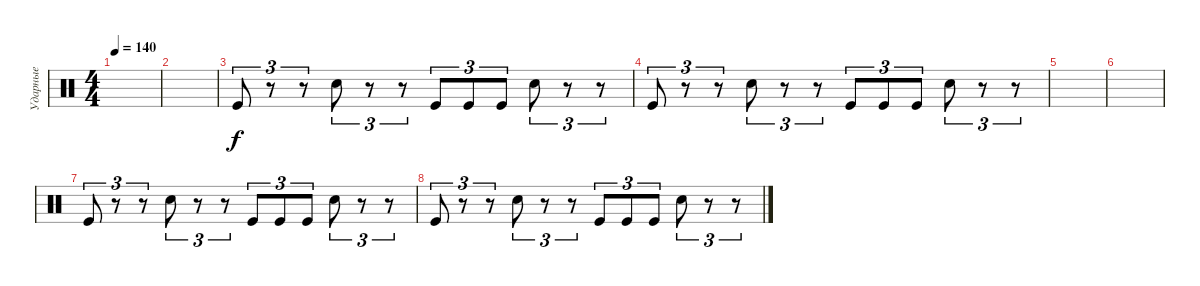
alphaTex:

\track ("Ударные" "Ударные") {instrument percussion}
\staff {score}
\articulation defaults
\ts (4 4)
\tempo 140
\clef neutral
\ks c
|
|
"Kick (hit)".8{tu (3 2)} r.8{tu (3 2)} r.8{tu (3 2)} "Electric Snare (hit)".8{tu (3 2)} r.8{tu (3 2)} r.8{tu (3 2)} "Kick (hit)".8{tu (3 2)} "Kick (hit)".8{tu (3 2)} "Kick (hit)".8{tu (3 2)} "Electric Snare (hit)".8{tu (3 2)} r.8{tu (3 2)} r.8{tu (3 2)} |
"Kick (hit)".8{tu (3 2)} r.8{tu (3 2)} r.8{tu (3 2)} "Electric Snare (hit)".8{tu (3 2)} r.8{tu (3 2)} r.8{tu (3 2)} "Kick (hit)".8{tu (3 2)} "Kick (hit)".8{tu (3 2)} "Kick (hit)".8{tu (3 2)} "Electric Snare (hit)".8{tu (3 2)} r.8{tu (3 2)} r.8{tu (3 2)} |
|
|
"Kick (hit)".8{tu (3 2)} r.8{tu (3 2)} r.8{tu (3 2)} "Electric Snare (hit)".8{tu (3 2)} r.8{tu (3 2)} r.8{tu (3 2)} "Kick (hit)".8{tu (3 2)} "Kick (hit)".8{tu (3 2)} "Kick (hit)".8{tu (3 2)} "Electric Snare (hit)".8{tu (3 2)} r.8{tu (3 2)} r.8{tu (3 2)} |
"Kick (hit)".8{tu (3 2)} r.8{tu (3 2)} r.8{tu (3 2)} "Electric Snare (hit)".8{tu (3 2)} r.8{tu (3 2)} r.8{tu (3 2)} "Kick (hit)".8{tu (3 2)} "Kick (hit)".8{tu (3 2)} "Kick (hit)".8{tu (3 2)} "Electric Snare (hit)".8{tu (3 2)} r.8{tu (3 2)} r.8{tu (3 2)}
